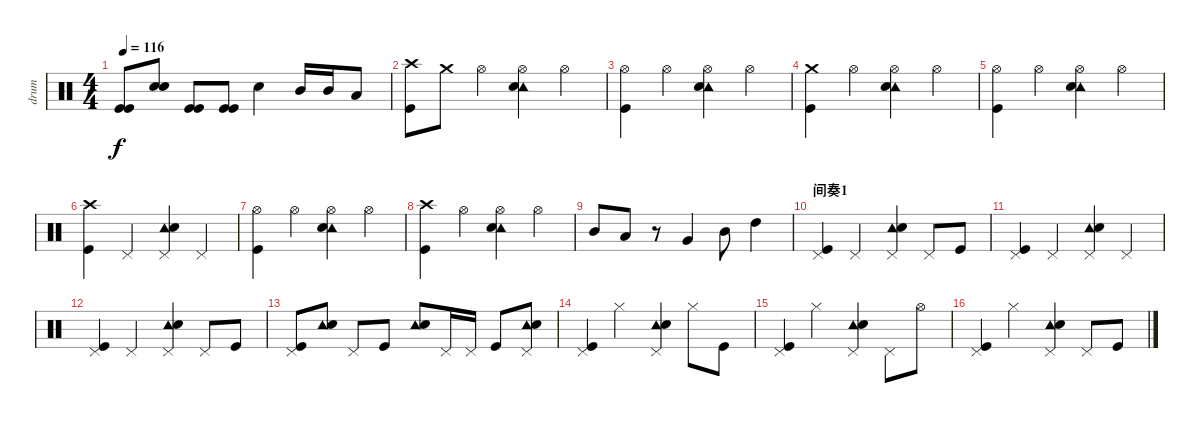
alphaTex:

\track ("drum" "drum") {instrument percussion}
\staff {score}
\articulation defaults
\ts (4 4)
\tempo 116
\clef neutral
\ks c
("Kick (hit)" "Kick (hit)").8{dy f} ("Snare (hit) 2" "Snare (hit) 2").8 ("Kick (hit)" "Kick (hit)").8 ("Kick (hit)" "Kick (hit)").8 "Snare (hit) 2".4 "Mid Tom (hit)".16 "Mid Tom (hit)".16 "Low Tom (hit)".8 |
("Crash high (hit)" "Kick (hit)").8 "Crash medium (hit)".8 "Hi-Hat (open)".4 ("Hi-Hat (open)" "Tambourine (hit)" "Snare (hit) 2").4 "Hi-Hat (open)".4 |
("Hi-Hat (open)" "Kick (hit)").4 "Hi-Hat (open)".4 ("Hi-Hat (open)" "Tambourine (hit)" "Snare (hit) 2").4 "Hi-Hat (open)".4 |
("Crash medium (hit)" "Kick (hit)").4 "Hi-Hat (open)".4 ("Hi-Hat (open)" "Tambourine (hit)" "Snare (hit) 2").4 "Hi-Hat (open)".4 |
("Hi-Hat (open)" "Kick (hit)").4 "Hi-Hat (open)".4 ("Hi-Hat (open)" "Tambourine (hit)" "Snare (hit) 2").4 "Hi-Hat (open)".4 |
("Crash high (hit)" "Kick (hit)").4 "Pedal Hi-Hat (hit)".4 ("Pedal Hi-Hat (hit)" "Tambourine (hit)" "Snare (hit) 2").4 "Pedal Hi-Hat (hit)".4 |
("Hi-Hat (open)" "Kick (hit)").4 "Hi-Hat (open)".4 ("Hi-Hat (open)" "Tambourine (hit)" "Snare (hit) 2").4 "Hi-Hat (open)".4 |
("Crash high (hit)" "Kick (hit)").4 "Hi-Hat (open)".4 ("Hi-Hat (open)" "Tambourine (hit)" "Snare (hit) 2").4 "Hi-Hat (open)".4 |
"Mid Tom (hit)".8 "Low Tom (hit)".8 r.8 "Very Low Tom (hit)".4 "Mid Tom (hit)".8 "High Tom (hit)".4 |
\section ("" "间奏1")
("Pedal Hi-Hat (hit)" "Kick (hit)").4 "Pedal Hi-Hat (hit)".4 ("Pedal Hi-Hat (hit)" "Tambourine (hit)" "Snare (hit) 2").4 "Pedal Hi-Hat (hit)".8 "Kick (hit)".8 |
("Pedal Hi-Hat (hit)" "Kick (hit)").4 "Pedal Hi-Hat (hit)".4 ("Pedal Hi-Hat (hit)" "Tambourine (hit)" "Snare (hit) 2").4 "Pedal Hi-Hat (hit)".4 |
("Pedal Hi-Hat (hit)" "Kick (hit)").4 "Pedal Hi-Hat (hit)".4 ("Pedal Hi-Hat (hit)" "Tambourine (hit)" "Snare (hit) 2").4 "Pedal Hi-Hat (hit)".8 "Kick (hit)".8 |
("Pedal Hi-Hat (hit)" "Kick (hit)").8 ("Tambourine (hit)" "Snare (hit) 2").8 "Pedal Hi-Hat (hit)".8 "Kick (hit)".8 ("Tambourine (hit)" "Snare (hit) 2").8 "Pedal Hi-Hat (hit)".16 "Pedal Hi-Hat (hit)".16 "Kick (hit)".8 ("Pedal Hi-Hat (hit)" "Tambourine (hit)" "Snare (hit) 2").8 |
("Pedal Hi-Hat (hit)" "Kick (hit)").4 "Hi-Hat (closed)".4 ("Pedal Hi-Hat (hit)" "Tambourine (hit)" "Snare (hit) 2").4 "Hi-Hat (closed)".8 "Kick (hit)".8 |
("Pedal Hi-Hat (hit)" "Kick (hit)").4 "Hi-Hat (closed)".4 ("Pedal Hi-Hat (hit)" "Tambourine (hit)" "Snare (hit) 2").4 "Pedal Hi-Hat (hit)".8 "Hi-Hat (open)".8 |
("Pedal Hi-Hat (hit)" "Kick (hit)").4 "Hi-Hat (closed)".4 ("Pedal Hi-Hat (hit)" "Tambourine (hit)" "Snare (hit) 2").4 "Pedal Hi-Hat (hit)".8 "Kick (hit)".8
